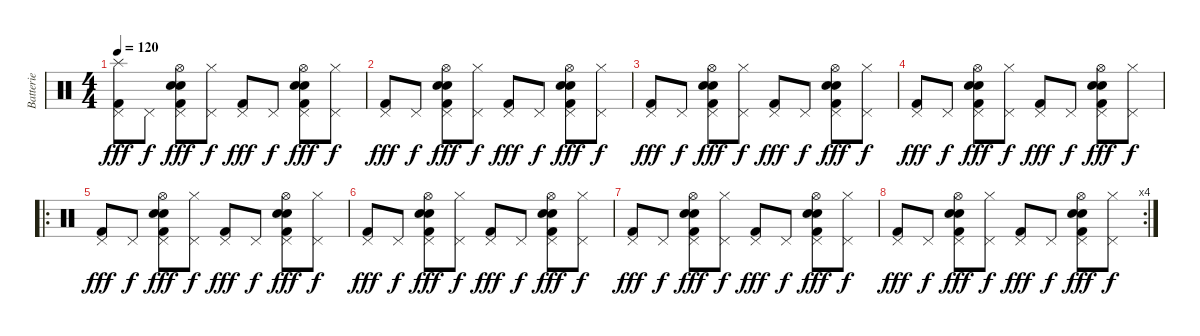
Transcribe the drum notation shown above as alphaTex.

\track ("Batterie" "Batterie") {instrument percussion}
\staff {score}
\articulation defaults
\ts (4 4)
\tempo 120
\clef neutral
\ks c
("Pedal Hi-Hat (hit)" "Kick (hit) 2" "Splash (hit)").8{dy fff} "Pedal Hi-Hat (hit)".8{dy f} ("Pedal Hi-Hat (hit)" "Kick (hit) 2" "Snare (hit) 2" "Electric Snare (hit)" "Hi-Hat (open)").8{dy fff} ("Pedal Hi-Hat (hit)" "Hi-Hat (closed)").8{dy f} ("Pedal Hi-Hat (hit)" "Kick (hit) 2").8{dy fff} "Pedal Hi-Hat (hit)".8{dy f} ("Pedal Hi-Hat (hit)" "Kick (hit) 2" "Snare (hit) 2" "Electric Snare (hit)" "Hi-Hat (open)").8{dy fff} ("Pedal Hi-Hat (hit)" "Hi-Hat (closed)").8{dy f} |
("Pedal Hi-Hat (hit)" "Kick (hit) 2").8{dy fff} "Pedal Hi-Hat (hit)".8{dy f} ("Pedal Hi-Hat (hit)" "Kick (hit) 2" "Snare (hit) 2" "Electric Snare (hit)" "Hi-Hat (open)").8{dy fff} ("Pedal Hi-Hat (hit)" "Hi-Hat (closed)").8{dy f} ("Pedal Hi-Hat (hit)" "Kick (hit) 2").8{dy fff} "Pedal Hi-Hat (hit)".8{dy f} ("Pedal Hi-Hat (hit)" "Kick (hit) 2" "Snare (hit) 2" "Electric Snare (hit)" "Hi-Hat (open)").8{dy fff} ("Pedal Hi-Hat (hit)" "Hi-Hat (closed)").8{dy f} |
("Pedal Hi-Hat (hit)" "Kick (hit) 2").8{dy fff} "Pedal Hi-Hat (hit)".8{dy f} ("Pedal Hi-Hat (hit)" "Kick (hit) 2" "Snare (hit) 2" "Electric Snare (hit)" "Hi-Hat (open)").8{dy fff} ("Pedal Hi-Hat (hit)" "Hi-Hat (closed)").8{dy f} ("Pedal Hi-Hat (hit)" "Kick (hit) 2").8{dy fff} "Pedal Hi-Hat (hit)".8{dy f} ("Pedal Hi-Hat (hit)" "Kick (hit) 2" "Snare (hit) 2" "Electric Snare (hit)" "Hi-Hat (open)").8{dy fff} ("Pedal Hi-Hat (hit)" "Hi-Hat (closed)").8{dy f} |
("Pedal Hi-Hat (hit)" "Kick (hit) 2").8{dy fff} "Pedal Hi-Hat (hit)".8{dy f} ("Pedal Hi-Hat (hit)" "Kick (hit) 2" "Snare (hit) 2" "Electric Snare (hit)" "Hi-Hat (open)").8{dy fff} ("Pedal Hi-Hat (hit)" "Hi-Hat (closed)").8{dy f} ("Pedal Hi-Hat (hit)" "Kick (hit) 2").8{dy fff} "Pedal Hi-Hat (hit)".8{dy f} ("Pedal Hi-Hat (hit)" "Kick (hit) 2" "Snare (hit) 2" "Electric Snare (hit)" "Hi-Hat (open)").8{dy fff} ("Pedal Hi-Hat (hit)" "Hi-Hat (closed)").8{dy f} |
\ro
("Pedal Hi-Hat (hit)" "Kick (hit) 2").8{dy fff} "Pedal Hi-Hat (hit)".8{dy f} ("Pedal Hi-Hat (hit)" "Kick (hit) 2" "Snare (hit) 2" "Electric Snare (hit)" "Hi-Hat (open)").8{dy fff} ("Pedal Hi-Hat (hit)" "Hi-Hat (closed)").8{dy f} ("Pedal Hi-Hat (hit)" "Kick (hit) 2").8{dy fff} "Pedal Hi-Hat (hit)".8{dy f} ("Pedal Hi-Hat (hit)" "Kick (hit) 2" "Snare (hit) 2" "Electric Snare (hit)" "Hi-Hat (open)").8{dy fff} ("Pedal Hi-Hat (hit)" "Hi-Hat (closed)").8{dy f} |
("Pedal Hi-Hat (hit)" "Kick (hit) 2").8{dy fff} "Pedal Hi-Hat (hit)".8{dy f} ("Pedal Hi-Hat (hit)" "Kick (hit) 2" "Snare (hit) 2" "Electric Snare (hit)" "Hi-Hat (open)").8{dy fff} ("Pedal Hi-Hat (hit)" "Hi-Hat (closed)").8{dy f} ("Pedal Hi-Hat (hit)" "Kick (hit) 2").8{dy fff} "Pedal Hi-Hat (hit)".8{dy f} ("Pedal Hi-Hat (hit)" "Kick (hit) 2" "Snare (hit) 2" "Electric Snare (hit)" "Hi-Hat (open)").8{dy fff} ("Pedal Hi-Hat (hit)" "Hi-Hat (closed)").8{dy f} |
("Pedal Hi-Hat (hit)" "Kick (hit) 2").8{dy fff} "Pedal Hi-Hat (hit)".8{dy f} ("Pedal Hi-Hat (hit)" "Kick (hit) 2" "Snare (hit) 2" "Electric Snare (hit)" "Hi-Hat (open)").8{dy fff} ("Pedal Hi-Hat (hit)" "Hi-Hat (closed)").8{dy f} ("Pedal Hi-Hat (hit)" "Kick (hit) 2").8{dy fff} "Pedal Hi-Hat (hit)".8{dy f} ("Pedal Hi-Hat (hit)" "Kick (hit) 2" "Snare (hit) 2" "Electric Snare (hit)" "Hi-Hat (open)").8{dy fff} ("Pedal Hi-Hat (hit)" "Hi-Hat (closed)").8{dy f} |
\rc 4
("Pedal Hi-Hat (hit)" "Kick (hit) 2").8{dy fff} "Pedal Hi-Hat (hit)".8{dy f} ("Pedal Hi-Hat (hit)" "Kick (hit) 2" "Snare (hit) 2" "Electric Snare (hit)" "Hi-Hat (open)").8{dy fff} ("Pedal Hi-Hat (hit)" "Hi-Hat (closed)").8{dy f} ("Pedal Hi-Hat (hit)" "Kick (hit) 2").8{dy fff} "Pedal Hi-Hat (hit)".8{dy f} ("Pedal Hi-Hat (hit)" "Kick (hit) 2" "Snare (hit) 2" "Electric Snare (hit)" "Hi-Hat (open)").8{dy fff} ("Pedal Hi-Hat (hit)" "Hi-Hat (closed)").8{dy f}
